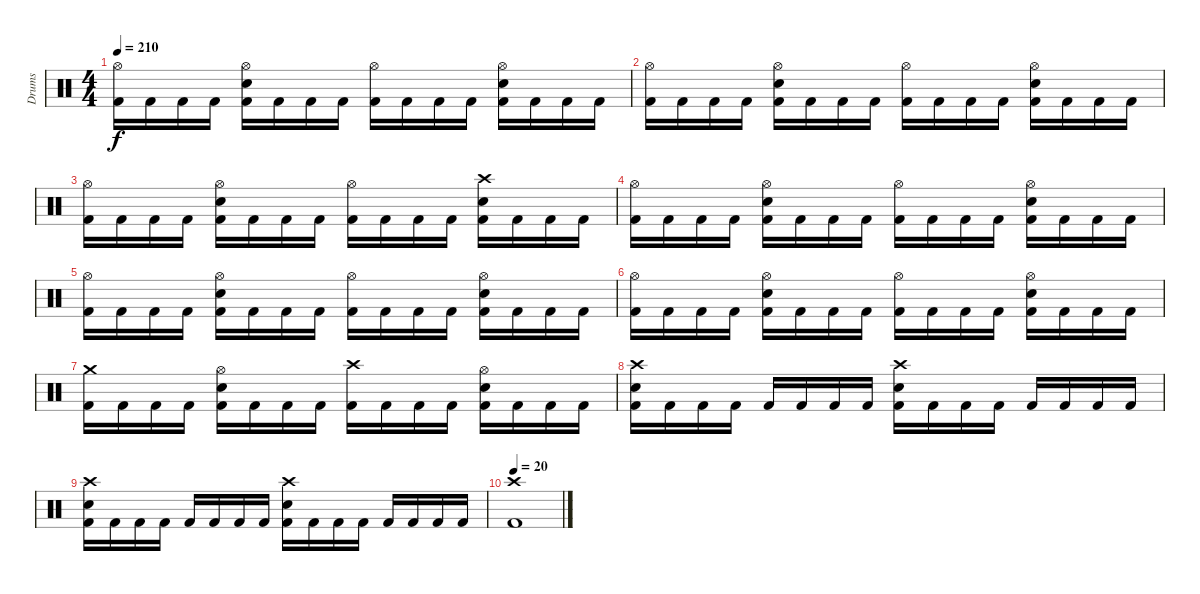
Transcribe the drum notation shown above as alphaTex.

\track ("Drums" "Drums") {instrument percussion}
\staff {score}
\articulation defaults
\ts (4 4)
\tempo 210
\clef neutral
\ks c
("Hi-Hat (open)" "Kick (hit) 2").16{dy f} "Kick (hit) 2".16 "Kick (hit) 2".16 "Kick (hit) 2".16 ("Hi-Hat (open)" "Snare (hit) 2" "Kick (hit) 2").16 "Kick (hit) 2".16 "Kick (hit) 2".16 "Kick (hit) 2".16 ("Hi-Hat (open)" "Kick (hit) 2").16 "Kick (hit) 2".16 "Kick (hit) 2".16 "Kick (hit) 2".16 ("Hi-Hat (open)" "Snare (hit) 2" "Kick (hit) 2").16 "Kick (hit) 2".16 "Kick (hit) 2".16 "Kick (hit) 2".16 |
("Hi-Hat (open)" "Kick (hit) 2").16 "Kick (hit) 2".16 "Kick (hit) 2".16 "Kick (hit) 2".16 ("Hi-Hat (open)" "Snare (hit) 2" "Kick (hit) 2").16 "Kick (hit) 2".16 "Kick (hit) 2".16 "Kick (hit) 2".16 ("Hi-Hat (open)" "Kick (hit) 2").16 "Kick (hit) 2".16 "Kick (hit) 2".16 "Kick (hit) 2".16 ("Hi-Hat (open)" "Snare (hit) 2" "Kick (hit) 2").16 "Kick (hit) 2".16 "Kick (hit) 2".16 "Kick (hit) 2".16 |
("Hi-Hat (open)" "Kick (hit) 2").16 "Kick (hit) 2".16 "Kick (hit) 2".16 "Kick (hit) 2".16 ("Hi-Hat (open)" "Snare (hit) 2" "Kick (hit) 2").16 "Kick (hit) 2".16 "Kick (hit) 2".16 "Kick (hit) 2".16 ("Hi-Hat (open)" "Kick (hit) 2").16 "Kick (hit) 2".16 "Kick (hit) 2".16 "Kick (hit) 2".16 ("Crash high (hit)" "Snare (hit) 2" "Kick (hit) 2").16 "Kick (hit) 2".16 "Kick (hit) 2".16 "Kick (hit) 2".16 |
("Hi-Hat (open)" "Kick (hit) 2").16 "Kick (hit) 2".16 "Kick (hit) 2".16 "Kick (hit) 2".16 ("Hi-Hat (open)" "Snare (hit) 2" "Kick (hit) 2").16 "Kick (hit) 2".16 "Kick (hit) 2".16 "Kick (hit) 2".16 ("Hi-Hat (open)" "Kick (hit) 2").16 "Kick (hit) 2".16 "Kick (hit) 2".16 "Kick (hit) 2".16 ("Hi-Hat (open)" "Snare (hit) 2" "Kick (hit) 2").16 "Kick (hit) 2".16 "Kick (hit) 2".16 "Kick (hit) 2".16 |
("Hi-Hat (open)" "Kick (hit) 2").16 "Kick (hit) 2".16 "Kick (hit) 2".16 "Kick (hit) 2".16 ("Hi-Hat (open)" "Snare (hit) 2" "Kick (hit) 2").16 "Kick (hit) 2".16 "Kick (hit) 2".16 "Kick (hit) 2".16 ("Hi-Hat (open)" "Kick (hit) 2").16 "Kick (hit) 2".16 "Kick (hit) 2".16 "Kick (hit) 2".16 ("Hi-Hat (open)" "Snare (hit) 2" "Kick (hit) 2").16 "Kick (hit) 2".16 "Kick (hit) 2".16 "Kick (hit) 2".16 |
("Hi-Hat (open)" "Kick (hit) 2").16 "Kick (hit) 2".16 "Kick (hit) 2".16 "Kick (hit) 2".16 ("Hi-Hat (open)" "Snare (hit) 2" "Kick (hit) 2").16 "Kick (hit) 2".16 "Kick (hit) 2".16 "Kick (hit) 2".16 ("Hi-Hat (open)" "Kick (hit) 2").16 "Kick (hit) 2".16 "Kick (hit) 2".16 "Kick (hit) 2".16 ("Hi-Hat (open)" "Snare (hit) 2" "Kick (hit) 2").16 "Kick (hit) 2".16 "Kick (hit) 2".16 "Kick (hit) 2".16 |
("Crash medium (hit)" "Kick (hit) 2").16 "Kick (hit) 2".16 "Kick (hit) 2".16 "Kick (hit) 2".16 ("Hi-Hat (open)" "Snare (hit) 2" "Kick (hit) 2").16 "Kick (hit) 2".16 "Kick (hit) 2".16 "Kick (hit) 2".16 ("Crash high (hit)" "Kick (hit) 2").16 "Kick (hit) 2".16 "Kick (hit) 2".16 "Kick (hit) 2".16 ("Hi-Hat (open)" "Snare (hit) 2" "Kick (hit) 2").16 "Kick (hit) 2".16 "Kick (hit) 2".16 "Kick (hit) 2".16 |
("Crash high (hit)" "Snare (hit) 2" "Kick (hit) 2").16 "Kick (hit) 2".16 "Kick (hit) 2".16 "Kick (hit) 2".16 "Kick (hit) 2".16 "Kick (hit) 2".16 "Kick (hit) 2".16 "Kick (hit) 2".16 ("Crash high (hit)" "Snare (hit) 2" "Kick (hit) 2").16 "Kick (hit) 2".16 "Kick (hit) 2".16 "Kick (hit) 2".16 "Kick (hit) 2".16 "Kick (hit) 2".16 "Kick (hit) 2".16 "Kick (hit) 2".16 |
("Crash high (hit)" "Snare (hit) 2" "Kick (hit) 2").16 "Kick (hit) 2".16 "Kick (hit) 2".16 "Kick (hit) 2".16 "Kick (hit) 2".16 "Kick (hit) 2".16 "Kick (hit) 2".16 "Kick (hit) 2".16 ("Crash high (hit)" "Snare (hit) 2" "Kick (hit) 2").16 "Kick (hit) 2".16 "Kick (hit) 2".16 "Kick (hit) 2".16 "Kick (hit) 2".16 "Kick (hit) 2".16 "Kick (hit) 2".16 "Kick (hit) 2".16 |
\tempo 20
("Crash high (hit)" "Kick (hit) 2").1
